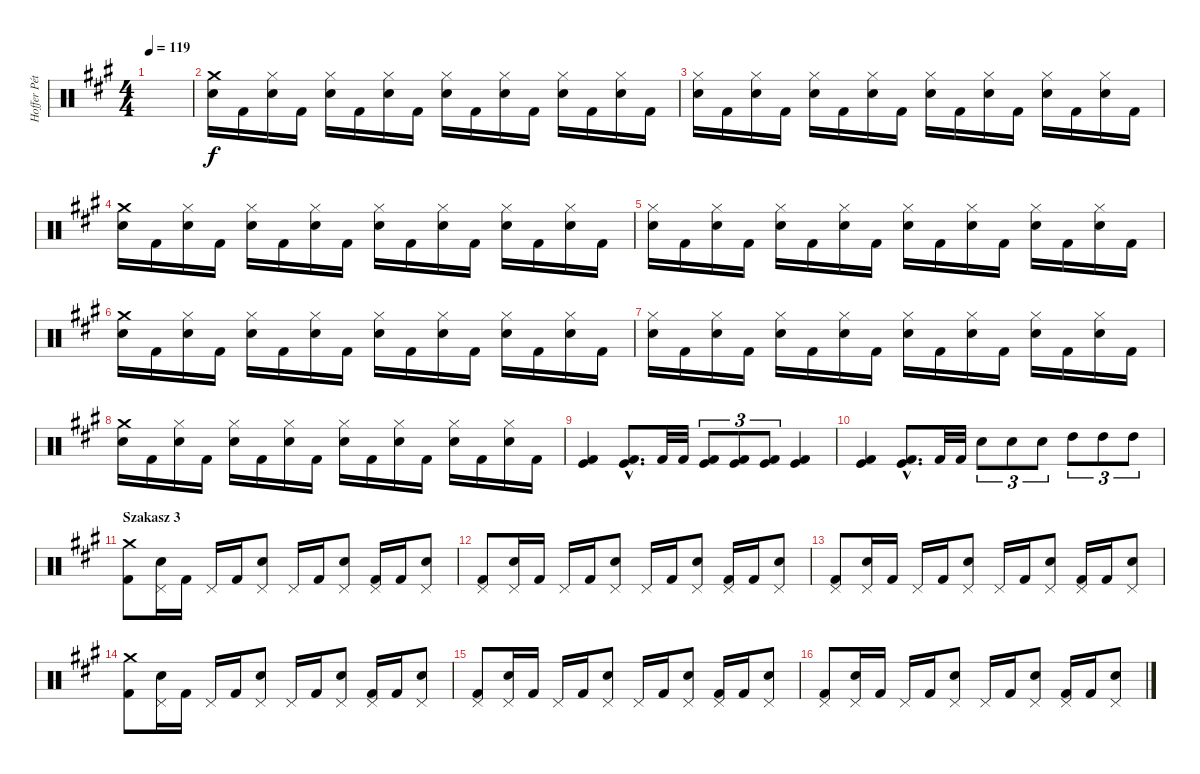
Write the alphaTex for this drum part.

\track ("Hoffer Péter" "Hoffer Pét") {instrument percussion}
\staff {score}
\articulation defaults
\ts (4 4)
\tempo 119
\clef neutral
\ks f#minor
|
("Crash medium (hit)" "Snare (hit) 2").16 "Kick (hit) 2".16 ("Hi-Hat (closed)" "Snare (hit) 2").16 "Kick (hit) 2".16 ("Hi-Hat (closed)" "Snare (hit) 2").16 "Kick (hit) 2".16 ("Hi-Hat (closed)" "Snare (hit) 2").16 "Kick (hit) 2".16 ("Hi-Hat (closed)" "Snare (hit) 2").16 "Kick (hit) 2".16 ("Hi-Hat (closed)" "Snare (hit) 2").16 "Kick (hit) 2".16 ("Hi-Hat (closed)" "Snare (hit) 2").16 "Kick (hit) 2".16 ("Hi-Hat (closed)" "Snare (hit) 2").16 "Kick (hit) 2".16 |
("Hi-Hat (closed)" "Snare (hit) 2").16 "Kick (hit) 2".16 ("Hi-Hat (closed)" "Snare (hit) 2").16 "Kick (hit) 2".16 ("Hi-Hat (closed)" "Snare (hit) 2").16 "Kick (hit) 2".16 ("Hi-Hat (closed)" "Snare (hit) 2").16 "Kick (hit) 2".16 ("Hi-Hat (closed)" "Snare (hit) 2").16 "Kick (hit) 2".16 ("Hi-Hat (closed)" "Snare (hit) 2").16 "Kick (hit) 2".16 ("Hi-Hat (closed)" "Snare (hit) 2").16 "Kick (hit) 2".16 ("Hi-Hat (closed)" "Snare (hit) 2").16 "Kick (hit) 2".16 |
("Crash medium (hit)" "Snare (hit) 2").16 "Kick (hit) 2".16 ("Hi-Hat (closed)" "Snare (hit) 2").16 "Kick (hit) 2".16 ("Hi-Hat (closed)" "Snare (hit) 2").16 "Kick (hit) 2".16 ("Hi-Hat (closed)" "Snare (hit) 2").16 "Kick (hit) 2".16 ("Hi-Hat (closed)" "Snare (hit) 2").16 "Kick (hit) 2".16 ("Hi-Hat (closed)" "Snare (hit) 2").16 "Kick (hit) 2".16 ("Hi-Hat (closed)" "Snare (hit) 2").16 "Kick (hit) 2".16 ("Hi-Hat (closed)" "Snare (hit) 2").16 "Kick (hit) 2".16 |
("Hi-Hat (closed)" "Snare (hit) 2").16 "Kick (hit) 2".16 ("Hi-Hat (closed)" "Snare (hit) 2").16 "Kick (hit) 2".16 ("Hi-Hat (closed)" "Snare (hit) 2").16 "Kick (hit) 2".16 ("Hi-Hat (closed)" "Snare (hit) 2").16 "Kick (hit) 2".16 ("Hi-Hat (closed)" "Snare (hit) 2").16 "Kick (hit) 2".16 ("Hi-Hat (closed)" "Snare (hit) 2").16 "Kick (hit) 2".16 ("Hi-Hat (closed)" "Snare (hit) 2").16 "Kick (hit) 2".16 ("Hi-Hat (closed)" "Snare (hit) 2").16 "Kick (hit) 2".16 |
("Crash medium (hit)" "Snare (hit) 2").16 "Kick (hit) 2".16 ("Hi-Hat (closed)" "Snare (hit) 2").16 "Kick (hit) 2".16 ("Hi-Hat (closed)" "Snare (hit) 2").16 "Kick (hit) 2".16 ("Hi-Hat (closed)" "Snare (hit) 2").16 "Kick (hit) 2".16 ("Hi-Hat (closed)" "Snare (hit) 2").16 "Kick (hit) 2".16 ("Hi-Hat (closed)" "Snare (hit) 2").16 "Kick (hit) 2".16 ("Hi-Hat (closed)" "Snare (hit) 2").16 "Kick (hit) 2".16 ("Hi-Hat (closed)" "Snare (hit) 2").16 "Kick (hit) 2".16 |
("Hi-Hat (closed)" "Snare (hit) 2").16 "Kick (hit) 2".16 ("Hi-Hat (closed)" "Snare (hit) 2").16 "Kick (hit) 2".16 ("Hi-Hat (closed)" "Snare (hit) 2").16 "Kick (hit) 2".16 ("Hi-Hat (closed)" "Snare (hit) 2").16 "Kick (hit) 2".16 ("Hi-Hat (closed)" "Snare (hit) 2").16 "Kick (hit) 2".16 ("Hi-Hat (closed)" "Snare (hit) 2").16 "Kick (hit) 2".16 ("Hi-Hat (closed)" "Snare (hit) 2").16 "Kick (hit) 2".16 ("Hi-Hat (closed)" "Snare (hit) 2").16 "Kick (hit) 2".16 |
("Crash medium (hit)" "Snare (hit) 2").16 "Kick (hit) 2".16 ("Hi-Hat (closed)" "Snare (hit) 2").16 "Kick (hit) 2".16 ("Hi-Hat (closed)" "Snare (hit) 2").16 "Kick (hit) 2".16 ("Hi-Hat (closed)" "Snare (hit) 2").16 "Kick (hit) 2".16 ("Hi-Hat (closed)" "Snare (hit) 2").16 "Kick (hit) 2".16 ("Hi-Hat (closed)" "Snare (hit) 2").16 "Kick (hit) 2".16 ("Hi-Hat (closed)" "Snare (hit) 2").16 "Kick (hit) 2".16 ("Hi-Hat (closed)" "Snare (hit) 2").16 "Kick (hit) 2".16 |
("Kick (hit) 2" "Kick (hit)").4 ("Kick (hit) 2"{hac} "Kick (hit)"{hac}).8{d} "Kick (hit) 2".32 "Kick (hit) 2".32 ("Kick (hit) 2" "Kick (hit)").8{tu (3 2)} ("Kick (hit) 2" "Kick (hit)").8{tu (3 2)} ("Kick (hit) 2" "Kick (hit)").8{tu (3 2)} ("Kick (hit) 2" "Kick (hit)").4 |
("Kick (hit) 2" "Kick (hit)").4 ("Kick (hit) 2"{hac} "Kick (hit)"{hac}).8{d} "Kick (hit) 2".32 "Kick (hit) 2".32 "Snare (hit) 2".8{tu (3 2)} "Snare (hit) 2".8{tu (3 2)} "Snare (hit) 2".8{tu (3 2)} "High Tom (hit)".8{tu (3 2)} "High Tom (hit)".8{tu (3 2)} "High Tom (hit)".8{tu (3 2)} |
\section ("" "Szakasz 3")
("Crash medium (hit)" "Kick (hit) 2").8 ("Pedal Hi-Hat (hit)" "Snare (hit) 2").16 "Kick (hit) 2".16 "Pedal Hi-Hat (hit)".16 "Kick (hit) 2".16 ("Pedal Hi-Hat (hit)" "Snare (hit) 2").8 "Pedal Hi-Hat (hit)".16 "Kick (hit) 2".16 ("Pedal Hi-Hat (hit)" "Snare (hit) 2").8 ("Pedal Hi-Hat (hit)" "Kick (hit) 2").16 "Kick (hit) 2".16 ("Pedal Hi-Hat (hit)" "Snare (hit) 2").8 |
("Pedal Hi-Hat (hit)" "Kick (hit) 2").8 ("Pedal Hi-Hat (hit)" "Snare (hit) 2").16 "Kick (hit) 2".16 "Pedal Hi-Hat (hit)".16 "Kick (hit) 2".16 ("Pedal Hi-Hat (hit)" "Snare (hit) 2").8 "Pedal Hi-Hat (hit)".16 "Kick (hit) 2".16 ("Pedal Hi-Hat (hit)" "Snare (hit) 2").8 ("Pedal Hi-Hat (hit)" "Kick (hit) 2").16 "Kick (hit) 2".16 ("Pedal Hi-Hat (hit)" "Snare (hit) 2").8 |
("Pedal Hi-Hat (hit)" "Kick (hit) 2").8 ("Pedal Hi-Hat (hit)" "Snare (hit) 2").16 "Kick (hit) 2".16 "Pedal Hi-Hat (hit)".16 "Kick (hit) 2".16 ("Pedal Hi-Hat (hit)" "Snare (hit) 2").8 "Pedal Hi-Hat (hit)".16 "Kick (hit) 2".16 ("Pedal Hi-Hat (hit)" "Snare (hit) 2").8 ("Pedal Hi-Hat (hit)" "Kick (hit) 2").16 "Kick (hit) 2".16 ("Pedal Hi-Hat (hit)" "Snare (hit) 2").8 |
("Crash medium (hit)" "Kick (hit) 2").8 ("Pedal Hi-Hat (hit)" "Snare (hit) 2").16 "Kick (hit) 2".16 "Pedal Hi-Hat (hit)".16 "Kick (hit) 2".16 ("Pedal Hi-Hat (hit)" "Snare (hit) 2").8 "Pedal Hi-Hat (hit)".16 "Kick (hit) 2".16 ("Pedal Hi-Hat (hit)" "Snare (hit) 2").8 ("Pedal Hi-Hat (hit)" "Kick (hit) 2").16 "Kick (hit) 2".16 ("Pedal Hi-Hat (hit)" "Snare (hit) 2").8 |
("Pedal Hi-Hat (hit)" "Kick (hit) 2").8 ("Pedal Hi-Hat (hit)" "Snare (hit) 2").16 "Kick (hit) 2".16 "Pedal Hi-Hat (hit)".16 "Kick (hit) 2".16 ("Pedal Hi-Hat (hit)" "Snare (hit) 2").8 "Pedal Hi-Hat (hit)".16 "Kick (hit) 2".16 ("Pedal Hi-Hat (hit)" "Snare (hit) 2").8 ("Pedal Hi-Hat (hit)" "Kick (hit) 2").16 "Kick (hit) 2".16 ("Pedal Hi-Hat (hit)" "Snare (hit) 2").8 |
("Pedal Hi-Hat (hit)" "Kick (hit) 2").8 ("Pedal Hi-Hat (hit)" "Snare (hit) 2").16 "Kick (hit) 2".16 "Pedal Hi-Hat (hit)".16 "Kick (hit) 2".16 ("Pedal Hi-Hat (hit)" "Snare (hit) 2").8 "Pedal Hi-Hat (hit)".16 "Kick (hit) 2".16 ("Pedal Hi-Hat (hit)" "Snare (hit) 2").8 ("Pedal Hi-Hat (hit)" "Kick (hit) 2").16 "Kick (hit) 2".16 ("Pedal Hi-Hat (hit)" "Snare (hit) 2").8
